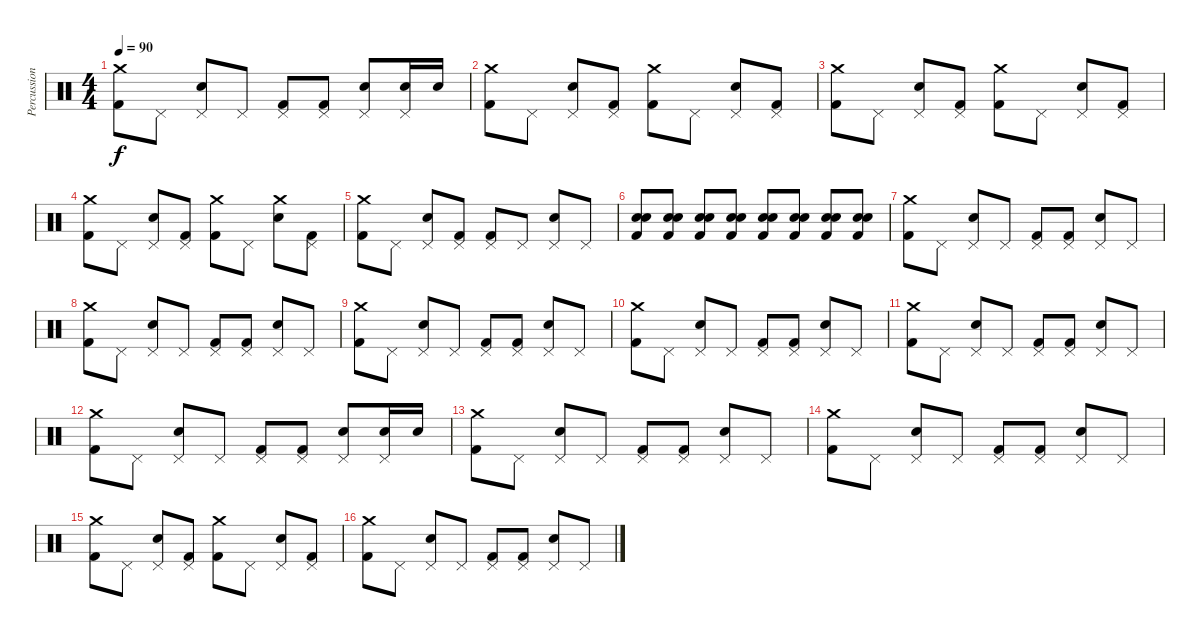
\track ("Percussion" "Percussion") {instrument percussion}
\staff {score}
\articulation defaults
\ts (4 4)
\tempo 90
\clef neutral
\ks c
("Crash medium (hit)" "Kick (hit) 2").8{dy f} "Pedal Hi-Hat (hit)".8 ("Pedal Hi-Hat (hit)" "Snare (hit) 2").8 "Pedal Hi-Hat (hit)".8 ("Pedal Hi-Hat (hit)" "Kick (hit) 2").8 ("Pedal Hi-Hat (hit)" "Kick (hit) 2").8 ("Pedal Hi-Hat (hit)" "Snare (hit) 2").8 ("Pedal Hi-Hat (hit)" "Snare (hit) 2").16 "Snare (hit) 2".16 |
("Crash medium (hit)" "Kick (hit) 2").8 "Pedal Hi-Hat (hit)".8 ("Pedal Hi-Hat (hit)" "Snare (hit) 2").8 ("Pedal Hi-Hat (hit)" "Kick (hit) 2").8 ("Crash medium (hit)" "Kick (hit) 2").8 "Pedal Hi-Hat (hit)".8 ("Pedal Hi-Hat (hit)" "Snare (hit) 2").8 ("Pedal Hi-Hat (hit)" "Kick (hit) 2").8 |
("Crash medium (hit)" "Kick (hit) 2").8 "Pedal Hi-Hat (hit)".8 ("Pedal Hi-Hat (hit)" "Snare (hit) 2").8 ("Pedal Hi-Hat (hit)" "Kick (hit) 2").8 ("Crash medium (hit)" "Kick (hit) 2").8 "Pedal Hi-Hat (hit)".8 ("Pedal Hi-Hat (hit)" "Snare (hit) 2").8 ("Pedal Hi-Hat (hit)" "Kick (hit) 2").8 |
("Crash medium (hit)" "Kick (hit) 2").8 "Pedal Hi-Hat (hit)".8 ("Pedal Hi-Hat (hit)" "Snare (hit) 2").8 ("Pedal Hi-Hat (hit)" "Kick (hit) 2").8 ("Crash medium (hit)" "Kick (hit) 2").8 "Pedal Hi-Hat (hit)".8 ("Crash medium (hit)" "Snare (hit) 2").8 ("Pedal Hi-Hat (hit)" "Kick (hit) 2").8 |
("Crash medium (hit)" "Kick (hit) 2").8 "Pedal Hi-Hat (hit)".8 ("Pedal Hi-Hat (hit)" "Snare (hit) 2").8 ("Pedal Hi-Hat (hit)" "Kick (hit) 2").8 ("Pedal Hi-Hat (hit)" "Kick (hit) 2").8 "Pedal Hi-Hat (hit)".8 ("Pedal Hi-Hat (hit)" "Snare (hit) 2").8 "Pedal Hi-Hat (hit)".8 |
("Snare (hit) 2" "Snare (hit) 2" "Kick (hit) 2").8 ("Snare (hit) 2" "Snare (hit) 2" "Kick (hit) 2").8 ("Snare (hit) 2" "Snare (hit) 2" "Kick (hit) 2").8 ("Snare (hit) 2" "Snare (hit) 2" "Kick (hit) 2").8 ("Snare (hit) 2" "Snare (hit) 2" "Kick (hit) 2").8 ("Snare (hit) 2" "Snare (hit) 2" "Kick (hit) 2").8 ("Snare (hit) 2" "Snare (hit) 2" "Kick (hit) 2").8 ("Snare (hit) 2" "Snare (hit) 2" "Kick (hit) 2").8 |
("Crash medium (hit)" "Kick (hit) 2").8 "Pedal Hi-Hat (hit)".8 ("Pedal Hi-Hat (hit)" "Snare (hit) 2").8 "Pedal Hi-Hat (hit)".8 ("Pedal Hi-Hat (hit)" "Kick (hit) 2").8 ("Pedal Hi-Hat (hit)" "Kick (hit) 2").8 ("Pedal Hi-Hat (hit)" "Snare (hit) 2").8 "Pedal Hi-Hat (hit)".8 |
("Crash medium (hit)" "Kick (hit) 2").8 "Pedal Hi-Hat (hit)".8 ("Pedal Hi-Hat (hit)" "Snare (hit) 2").8 "Pedal Hi-Hat (hit)".8 ("Pedal Hi-Hat (hit)" "Kick (hit) 2").8 ("Pedal Hi-Hat (hit)" "Kick (hit) 2").8 ("Pedal Hi-Hat (hit)" "Snare (hit) 2").8 "Pedal Hi-Hat (hit)".8 |
("Crash medium (hit)" "Kick (hit) 2").8 "Pedal Hi-Hat (hit)".8 ("Pedal Hi-Hat (hit)" "Snare (hit) 2").8 "Pedal Hi-Hat (hit)".8 ("Pedal Hi-Hat (hit)" "Kick (hit) 2").8 ("Pedal Hi-Hat (hit)" "Kick (hit) 2").8 ("Pedal Hi-Hat (hit)" "Snare (hit) 2").8 "Pedal Hi-Hat (hit)".8 |
("Crash medium (hit)" "Kick (hit) 2").8 "Pedal Hi-Hat (hit)".8 ("Pedal Hi-Hat (hit)" "Snare (hit) 2").8 "Pedal Hi-Hat (hit)".8 ("Pedal Hi-Hat (hit)" "Kick (hit) 2").8 ("Pedal Hi-Hat (hit)" "Kick (hit) 2").8 ("Pedal Hi-Hat (hit)" "Snare (hit) 2").8 "Pedal Hi-Hat (hit)".8 |
("Crash medium (hit)" "Kick (hit) 2").8 "Pedal Hi-Hat (hit)".8 ("Pedal Hi-Hat (hit)" "Snare (hit) 2").8 "Pedal Hi-Hat (hit)".8 ("Pedal Hi-Hat (hit)" "Kick (hit) 2").8 ("Pedal Hi-Hat (hit)" "Kick (hit) 2").8 ("Pedal Hi-Hat (hit)" "Snare (hit) 2").8 "Pedal Hi-Hat (hit)".8 |
("Crash medium (hit)" "Kick (hit) 2").8 "Pedal Hi-Hat (hit)".8 ("Pedal Hi-Hat (hit)" "Snare (hit) 2").8 "Pedal Hi-Hat (hit)".8 ("Pedal Hi-Hat (hit)" "Kick (hit) 2").8 ("Pedal Hi-Hat (hit)" "Kick (hit) 2").8 ("Pedal Hi-Hat (hit)" "Snare (hit) 2").8 ("Pedal Hi-Hat (hit)" "Snare (hit) 2").16 "Snare (hit) 2".16 |
("Crash medium (hit)" "Kick (hit) 2").8 "Pedal Hi-Hat (hit)".8 ("Pedal Hi-Hat (hit)" "Snare (hit) 2").8 "Pedal Hi-Hat (hit)".8 ("Pedal Hi-Hat (hit)" "Kick (hit) 2").8 ("Pedal Hi-Hat (hit)" "Kick (hit) 2").8 ("Pedal Hi-Hat (hit)" "Snare (hit) 2").8 "Pedal Hi-Hat (hit)".8 |
("Crash medium (hit)" "Kick (hit) 2").8 "Pedal Hi-Hat (hit)".8 ("Pedal Hi-Hat (hit)" "Snare (hit) 2").8 "Pedal Hi-Hat (hit)".8 ("Pedal Hi-Hat (hit)" "Kick (hit) 2").8 ("Pedal Hi-Hat (hit)" "Kick (hit) 2").8 ("Pedal Hi-Hat (hit)" "Snare (hit) 2").8 "Pedal Hi-Hat (hit)".8 |
("Crash medium (hit)" "Kick (hit) 2").8 "Pedal Hi-Hat (hit)".8 ("Pedal Hi-Hat (hit)" "Snare (hit) 2").8 ("Pedal Hi-Hat (hit)" "Kick (hit) 2").8 ("Crash medium (hit)" "Kick (hit) 2").8 "Pedal Hi-Hat (hit)".8 ("Pedal Hi-Hat (hit)" "Snare (hit) 2").8 ("Pedal Hi-Hat (hit)" "Kick (hit) 2").8 |
("Crash medium (hit)" "Kick (hit) 2").8 "Pedal Hi-Hat (hit)".8 ("Pedal Hi-Hat (hit)" "Snare (hit) 2").8 "Pedal Hi-Hat (hit)".8 ("Pedal Hi-Hat (hit)" "Kick (hit) 2").8 ("Pedal Hi-Hat (hit)" "Kick (hit) 2").8 ("Pedal Hi-Hat (hit)" "Snare (hit) 2").8 "Pedal Hi-Hat (hit)".8
